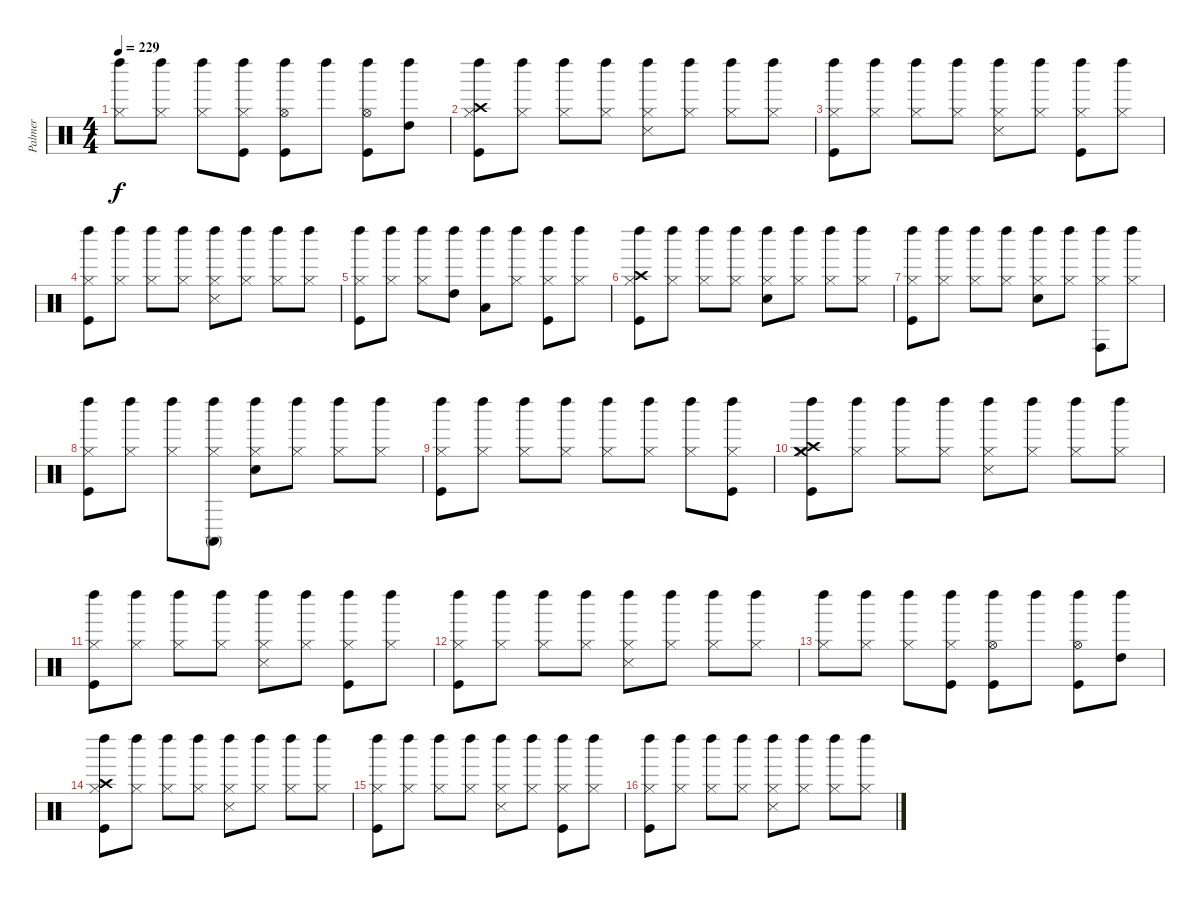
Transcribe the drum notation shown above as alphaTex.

\track ("Palmer" "Palmer") {instrument percussion}
\staff {score}
\articulation defaults
\ts (4 4)
\tempo 229
\clef neutral
\ks c
("Hi-Hat (closed)" "Left Maraca (hit)").8{dy f} ("Hi-Hat (closed)" "Left Maraca (hit)").8 ("Hi-Hat (closed)" "Left Maraca (hit)").8 ("Kick (hit)" "Hi-Hat (closed)" "Left Maraca (hit)").8 ("Kick (hit)" "Hi-Hat (open)" "Left Maraca (hit)").8 "Left Maraca (hit)".8 ("Kick (hit)" "Hi-Hat (open)" "Left Maraca (hit)").8 ("High Tom (hit)" "Left Maraca (hit)").8 |
("Kick (hit)" "Hi-Hat (closed)" "Crash high (hit)" "Left Maraca (hit)").8 ("Hi-Hat (closed)" "Left Maraca (hit)").8 ("Hi-Hat (closed)" "Left Maraca (hit)").8 ("Hi-Hat (closed)" "Left Maraca (hit)").8 ("Hi-Hat (closed)" "Snare (side stick) 3" "Left Maraca (hit)").8 ("Hi-Hat (closed)" "Left Maraca (hit)").8 ("Hi-Hat (closed)" "Left Maraca (hit)").8 ("Hi-Hat (closed)" "Left Maraca (hit)").8 |
("Kick (hit)" "Hi-Hat (closed)" "Left Maraca (hit)").8 ("Hi-Hat (closed)" "Left Maraca (hit)").8 ("Hi-Hat (closed)" "Left Maraca (hit)").8 ("Hi-Hat (closed)" "Left Maraca (hit)").8 ("Hi-Hat (closed)" "Snare (side stick) 3" "Left Maraca (hit)").8 ("Hi-Hat (closed)" "Left Maraca (hit)").8 ("Kick (hit)" "Hi-Hat (closed)" "Left Maraca (hit)").8 ("Hi-Hat (closed)" "Left Maraca (hit)").8 |
("Kick (hit)" "Hi-Hat (closed)" "Left Maraca (hit)").8 ("Hi-Hat (closed)" "Left Maraca (hit)").8 ("Hi-Hat (closed)" "Left Maraca (hit)").8 ("Hi-Hat (closed)" "Left Maraca (hit)").8 ("Hi-Hat (closed)" "Snare (side stick) 3" "Left Maraca (hit)").8 ("Hi-Hat (closed)" "Left Maraca (hit)").8 ("Hi-Hat (closed)" "Left Maraca (hit)").8 ("Hi-Hat (closed)" "Left Maraca (hit)").8 |
("Kick (hit)" "Hi-Hat (closed)" "Left Maraca (hit)").8 ("Hi-Hat (closed)" "Left Maraca (hit)").8 ("Hi-Hat (closed)" "Left Maraca (hit)").8 ("High Tom (hit)" "Left Maraca (hit)").8 ("Low Tom (hit)" "Left Maraca (hit)").8 ("Hi-Hat (closed)" "Left Maraca (hit)").8 ("Kick (hit)" "Hi-Hat (closed)" "Left Maraca (hit)").8 ("Hi-Hat (closed)" "Left Maraca (hit)").8 |
("Kick (hit)" "Hi-Hat (closed)" "Crash high (hit)" "Left Maraca (hit)").8 ("Hi-Hat (closed)" "Left Maraca (hit)").8 ("Hi-Hat (closed)" "Left Maraca (hit)").8 ("Hi-Hat (closed)" "Left Maraca (hit)").8 ("Snare (hit) 2" "Hi-Hat (closed)" "Left Maraca (hit)").8 ("Hi-Hat (closed)" "Left Maraca (hit)").8 ("Hi-Hat (closed)" "Left Maraca (hit)").8 ("Hi-Hat (closed)" "Left Maraca (hit)").8 |
("Kick (hit)" "Hi-Hat (closed)" "Left Maraca (hit)").8 ("Hi-Hat (closed)" "Left Maraca (hit)").8 ("Hi-Hat (closed)" "Left Maraca (hit)").8 ("Hi-Hat (closed)" "Left Maraca (hit)").8 ("Snare (hit) 2" "Hi-Hat (closed)" "Left Maraca (hit)").8 ("Hi-Hat (closed)" "Left Maraca (hit)").8 ("Hi-Hat (closed)" "Conga high (hit)" "Left Maraca (hit)").8 ("Hi-Hat (closed)" "Left Maraca (hit)").8 |
("Kick (hit)" "Hi-Hat (closed)" "Left Maraca (hit)").8 ("Hi-Hat (closed)" "Left Maraca (hit)").8 ("Hi-Hat (closed)" "Left Maraca (hit)").8 ("Hi-Hat (closed)" "Conga high (mute)" "Left Maraca (hit)").8 ("Snare (hit) 2" "Hi-Hat (closed)" "Left Maraca (hit)").8 ("Hi-Hat (closed)" "Left Maraca (hit)").8 ("Hi-Hat (closed)" "Left Maraca (hit)").8 ("Hi-Hat (closed)" "Left Maraca (hit)").8 |
("Kick (hit)" "Hi-Hat (closed)" "Left Maraca (hit)").8 ("Hi-Hat (closed)" "Left Maraca (hit)").8 ("Hi-Hat (closed)" "Left Maraca (hit)").8 ("Hi-Hat (closed)" "Left Maraca (hit)").8 ("Hi-Hat (closed)" "Left Maraca (hit)").8 ("Hi-Hat (closed)" "Left Maraca (hit)").8 ("Hi-Hat (closed)" "Left Maraca (hit)").8 ("Kick (hit)" "Hi-Hat (closed)" "Left Maraca (hit)").8 |
("Crash medium (hit)" "Kick (hit)" "Hi-Hat (closed)" "Crash high (hit)" "Left Maraca (hit)").8 ("Hi-Hat (closed)" "Left Maraca (hit)").8 ("Hi-Hat (closed)" "Left Maraca (hit)").8 ("Hi-Hat (closed)" "Left Maraca (hit)").8 ("Hi-Hat (closed)" "Snare (side stick) 3" "Left Maraca (hit)").8 ("Hi-Hat (closed)" "Left Maraca (hit)").8 ("Hi-Hat (closed)" "Left Maraca (hit)").8 ("Hi-Hat (closed)" "Left Maraca (hit)").8 |
("Kick (hit)" "Hi-Hat (closed)" "Left Maraca (hit)").8 ("Hi-Hat (closed)" "Left Maraca (hit)").8 ("Hi-Hat (closed)" "Left Maraca (hit)").8 ("Hi-Hat (closed)" "Left Maraca (hit)").8 ("Hi-Hat (closed)" "Snare (side stick) 3" "Left Maraca (hit)").8 ("Hi-Hat (closed)" "Left Maraca (hit)").8 ("Kick (hit)" "Hi-Hat (closed)" "Left Maraca (hit)").8 ("Hi-Hat (closed)" "Left Maraca (hit)").8 |
("Kick (hit)" "Hi-Hat (closed)" "Left Maraca (hit)").8 ("Hi-Hat (closed)" "Left Maraca (hit)").8 ("Hi-Hat (closed)" "Left Maraca (hit)").8 ("Hi-Hat (closed)" "Left Maraca (hit)").8 ("Hi-Hat (closed)" "Snare (side stick) 3" "Left Maraca (hit)").8 ("Hi-Hat (closed)" "Left Maraca (hit)").8 ("Hi-Hat (closed)" "Left Maraca (hit)").8 ("Hi-Hat (closed)" "Left Maraca (hit)").8 |
("Hi-Hat (closed)" "Left Maraca (hit)").8 ("Hi-Hat (closed)" "Left Maraca (hit)").8 ("Hi-Hat (closed)" "Left Maraca (hit)").8 ("Kick (hit)" "Hi-Hat (closed)" "Left Maraca (hit)").8 ("Kick (hit)" "Hi-Hat (open)" "Left Maraca (hit)").8 "Left Maraca (hit)".8 ("Kick (hit)" "Hi-Hat (open)" "Left Maraca (hit)").8 ("High Tom (hit)" "Left Maraca (hit)").8 |
("Kick (hit)" "Hi-Hat (closed)" "Crash high (hit)" "Left Maraca (hit)").8 ("Hi-Hat (closed)" "Left Maraca (hit)").8 ("Hi-Hat (closed)" "Left Maraca (hit)").8 ("Hi-Hat (closed)" "Left Maraca (hit)").8 ("Hi-Hat (closed)" "Snare (side stick) 3" "Left Maraca (hit)").8 ("Hi-Hat (closed)" "Left Maraca (hit)").8 ("Hi-Hat (closed)" "Left Maraca (hit)").8 ("Hi-Hat (closed)" "Left Maraca (hit)").8 |
("Kick (hit)" "Hi-Hat (closed)" "Left Maraca (hit)").8 ("Hi-Hat (closed)" "Left Maraca (hit)").8 ("Hi-Hat (closed)" "Left Maraca (hit)").8 ("Hi-Hat (closed)" "Left Maraca (hit)").8 ("Hi-Hat (closed)" "Snare (side stick) 3" "Left Maraca (hit)").8 ("Hi-Hat (closed)" "Left Maraca (hit)").8 ("Kick (hit)" "Hi-Hat (closed)" "Left Maraca (hit)").8 ("Hi-Hat (closed)" "Left Maraca (hit)").8 |
("Kick (hit)" "Hi-Hat (closed)" "Left Maraca (hit)").8 ("Hi-Hat (closed)" "Left Maraca (hit)").8 ("Hi-Hat (closed)" "Left Maraca (hit)").8 ("Hi-Hat (closed)" "Left Maraca (hit)").8 ("Hi-Hat (closed)" "Snare (side stick) 3" "Left Maraca (hit)").8 ("Hi-Hat (closed)" "Left Maraca (hit)").8 ("Hi-Hat (closed)" "Left Maraca (hit)").8 ("Hi-Hat (closed)" "Left Maraca (hit)").8
